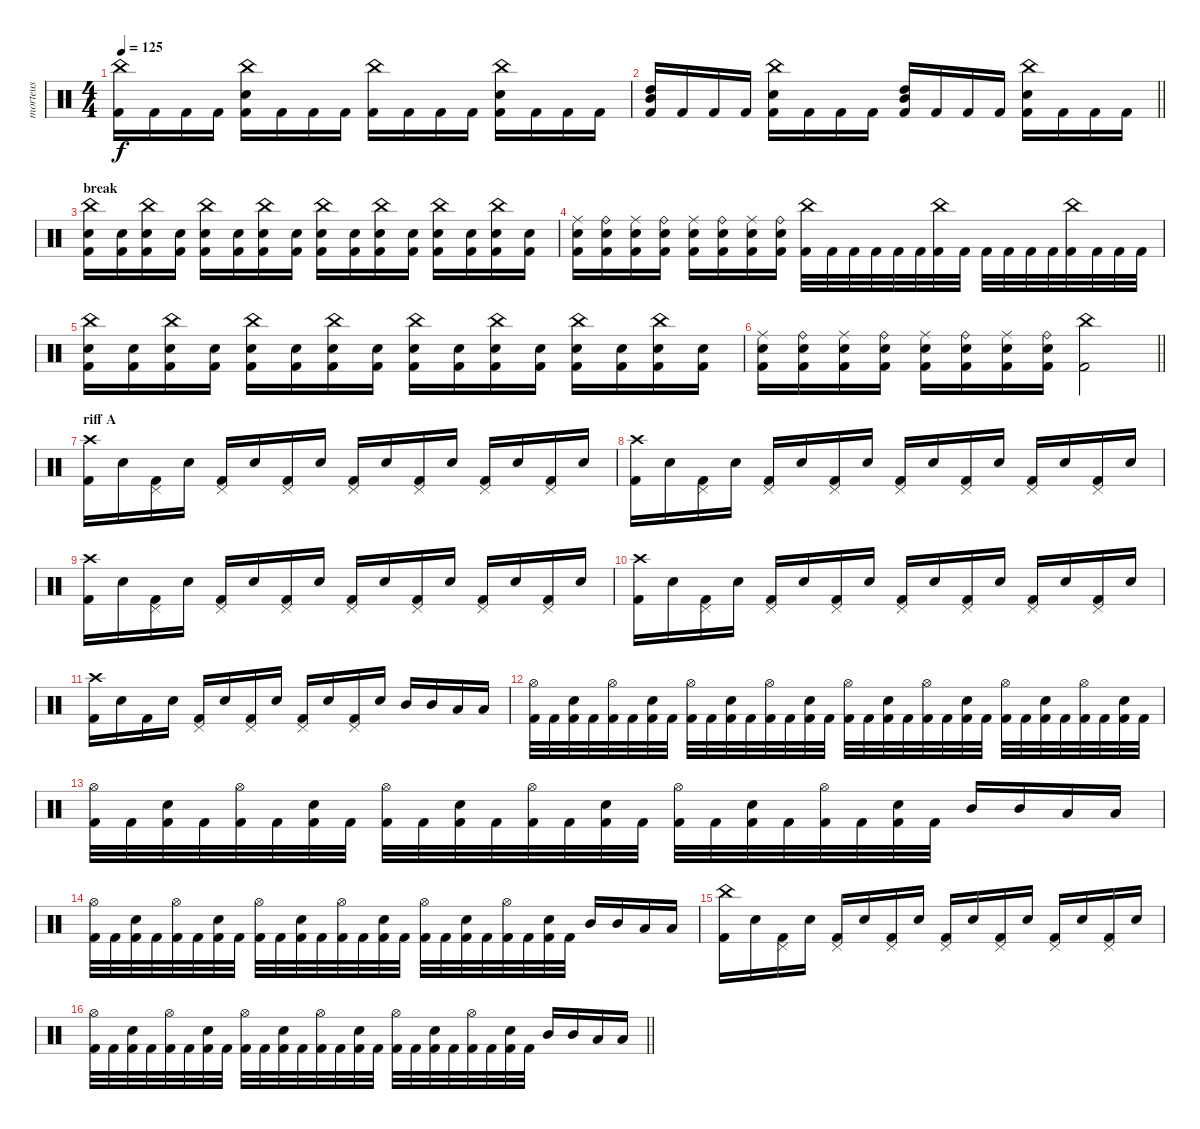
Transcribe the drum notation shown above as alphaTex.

\track ("morteus" "morteus") {instrument percussion}
\staff {score}
\articulation defaults
\ts (4 4)
\tempo 125
\clef neutral
\ks c
("China (hit)" "Kick (hit) 2").16{dy f} "Kick (hit) 2".16 "Kick (hit) 2".16 "Kick (hit) 2".16 ("China (hit)" "Electric Snare (hit)" "Kick (hit) 2").16 "Kick (hit) 2".16 "Kick (hit) 2".16 "Kick (hit) 2".16 ("China (hit)" "Kick (hit) 2").16 "Kick (hit) 2".16 "Kick (hit) 2".16 "Kick (hit) 2".16 ("China (hit)" "Electric Snare (hit)" "Kick (hit) 2").16 "Kick (hit) 2".16 "Kick (hit) 2".16 "Kick (hit) 2".16 |
\barLineRight lightlight
("High Tom (hit)" "Mid Tom (hit)" "Kick (hit) 2").16 "Kick (hit) 2".16 "Kick (hit) 2".16 "Kick (hit) 2".16 ("China (hit)" "Electric Snare (hit)" "Kick (hit) 2").16 "Kick (hit) 2".16 "Kick (hit) 2".16 "Kick (hit) 2".16 ("High Tom (hit)" "Mid Tom (hit)" "Kick (hit) 2").16 "Kick (hit) 2".16 "Kick (hit) 2".16 "Kick (hit) 2".16 ("China (hit)" "Electric Snare (hit)" "Kick (hit) 2").16 "Kick (hit) 2".16 "Kick (hit) 2".16 "Kick (hit) 2".16 |
\section ("" "break")
("Kick (hit) 2" "Electric Snare (hit)" "China (hit)").16 ("Kick (hit) 2" "Electric Snare (hit)").16 ("Kick (hit) 2" "Electric Snare (hit)" "China (hit)").16 ("Kick (hit) 2" "Electric Snare (hit)").16 ("Kick (hit) 2" "Electric Snare (hit)" "China (hit)").16 ("Kick (hit) 2" "Electric Snare (hit)").16 ("Kick (hit) 2" "Electric Snare (hit)" "China (hit)").16 ("Kick (hit) 2" "Electric Snare (hit)").16 ("Kick (hit) 2" "Electric Snare (hit)" "China (hit)").16 ("Kick (hit) 2" "Electric Snare (hit)").16 ("Kick (hit) 2" "Electric Snare (hit)" "China (hit)").16 ("Kick (hit) 2" "Electric Snare (hit)").16 ("Kick (hit) 2" "Electric Snare (hit)" "China (hit)").16 ("Kick (hit) 2" "Electric Snare (hit)").16 ("Kick (hit) 2" "Electric Snare (hit)" "China (hit)").16 ("Kick (hit) 2" "Electric Snare (hit)").16 |
("Kick (hit) 2" "Electric Snare (hit)" "Ride (middle)").16 ("Kick (hit) 2" "Electric Snare (hit)" "Ride (bell)").16 ("Kick (hit) 2" "Electric Snare (hit)" "Ride (middle)").16 ("Kick (hit) 2" "Electric Snare (hit)" "Ride (bell)").16 ("Kick (hit) 2" "Electric Snare (hit)" "Ride (middle)").16 ("Kick (hit) 2" "Electric Snare (hit)" "Ride (bell)").16 ("Kick (hit) 2" "Electric Snare (hit)" "Ride (middle)").16 ("Kick (hit) 2" "Electric Snare (hit)" "Ride (bell)").16 ("Kick (hit) 2" "China (hit)").32 "Kick (hit) 2".32 "Kick (hit) 2".32 "Kick (hit) 2".32 "Kick (hit) 2".32 "Kick (hit) 2".32 ("Kick (hit) 2" "China (hit)").32 "Kick (hit) 2".32 "Kick (hit) 2".32 "Kick (hit) 2".32 "Kick (hit) 2".32 "Kick (hit) 2".32 ("Kick (hit) 2" "China (hit)").32 "Kick (hit) 2".32 "Kick (hit) 2".32 "Kick (hit) 2".32 |
("Kick (hit) 2" "Electric Snare (hit)" "China (hit)").16 ("Kick (hit) 2" "Electric Snare (hit)").16 ("Kick (hit) 2" "Electric Snare (hit)" "China (hit)").16 ("Kick (hit) 2" "Electric Snare (hit)").16 ("Kick (hit) 2" "Electric Snare (hit)" "China (hit)").16 ("Kick (hit) 2" "Electric Snare (hit)").16 ("Kick (hit) 2" "Electric Snare (hit)" "China (hit)").16 ("Kick (hit) 2" "Electric Snare (hit)").16 ("Kick (hit) 2" "Electric Snare (hit)" "China (hit)").16 ("Kick (hit) 2" "Electric Snare (hit)").16 ("Kick (hit) 2" "Electric Snare (hit)" "China (hit)").16 ("Kick (hit) 2" "Electric Snare (hit)").16 ("Kick (hit) 2" "Electric Snare (hit)" "China (hit)").16 ("Kick (hit) 2" "Electric Snare (hit)").16 ("Kick (hit) 2" "Electric Snare (hit)" "China (hit)").16 ("Kick (hit) 2" "Electric Snare (hit)").16 |
\barLineRight lightlight
("Kick (hit) 2" "Electric Snare (hit)" "Ride (middle)").16 ("Kick (hit) 2" "Electric Snare (hit)" "Ride (bell)").16 ("Kick (hit) 2" "Electric Snare (hit)" "Ride (middle)").16 ("Kick (hit) 2" "Electric Snare (hit)" "Ride (bell)").16 ("Kick (hit) 2" "Electric Snare (hit)" "Ride (middle)").16 ("Kick (hit) 2" "Electric Snare (hit)" "Ride (bell)").16 ("Kick (hit) 2" "Electric Snare (hit)" "Ride (middle)").16 ("Kick (hit) 2" "Electric Snare (hit)" "Ride (bell)").16 ("China (hit)" "Kick (hit) 2").2 |
\section ("" "riff A")
("Kick (hit) 2" "Crash high (hit)").16 "Electric Snare (hit)".16 ("Kick (hit) 2" "Pedal Hi-Hat (hit)").16 "Electric Snare (hit)".16 ("Kick (hit) 2" "Pedal Hi-Hat (hit)").16 "Electric Snare (hit)".16 ("Kick (hit) 2" "Pedal Hi-Hat (hit)").16 "Electric Snare (hit)".16 ("Kick (hit) 2" "Pedal Hi-Hat (hit)").16 "Electric Snare (hit)".16 ("Kick (hit) 2" "Pedal Hi-Hat (hit)").16 "Electric Snare (hit)".16 ("Kick (hit) 2" "Pedal Hi-Hat (hit)").16 "Electric Snare (hit)".16 ("Kick (hit) 2" "Pedal Hi-Hat (hit)").16 "Electric Snare (hit)".16 |
("Kick (hit) 2" "Crash high (hit)").16 "Electric Snare (hit)".16 ("Kick (hit) 2" "Pedal Hi-Hat (hit)").16 "Electric Snare (hit)".16 ("Kick (hit) 2" "Pedal Hi-Hat (hit)").16 "Electric Snare (hit)".16 ("Kick (hit) 2" "Pedal Hi-Hat (hit)").16 "Electric Snare (hit)".16 ("Kick (hit) 2" "Pedal Hi-Hat (hit)").16 "Electric Snare (hit)".16 ("Kick (hit) 2" "Pedal Hi-Hat (hit)").16 "Electric Snare (hit)".16 ("Kick (hit) 2" "Pedal Hi-Hat (hit)").16 "Electric Snare (hit)".16 ("Kick (hit) 2" "Pedal Hi-Hat (hit)").16 "Electric Snare (hit)".16 |
("Kick (hit) 2" "Crash high (hit)").16 "Electric Snare (hit)".16 ("Kick (hit) 2" "Pedal Hi-Hat (hit)").16 "Electric Snare (hit)".16 ("Kick (hit) 2" "Pedal Hi-Hat (hit)").16 "Electric Snare (hit)".16 ("Kick (hit) 2" "Pedal Hi-Hat (hit)").16 "Electric Snare (hit)".16 ("Kick (hit) 2" "Pedal Hi-Hat (hit)").16 "Electric Snare (hit)".16 ("Kick (hit) 2" "Pedal Hi-Hat (hit)").16 "Electric Snare (hit)".16 ("Kick (hit) 2" "Pedal Hi-Hat (hit)").16 "Electric Snare (hit)".16 ("Kick (hit) 2" "Pedal Hi-Hat (hit)").16 "Electric Snare (hit)".16 |
("Kick (hit) 2" "Crash high (hit)").16 "Electric Snare (hit)".16 ("Kick (hit) 2" "Pedal Hi-Hat (hit)").16 "Electric Snare (hit)".16 ("Kick (hit) 2" "Pedal Hi-Hat (hit)").16 "Electric Snare (hit)".16 ("Kick (hit) 2" "Pedal Hi-Hat (hit)").16 "Electric Snare (hit)".16 ("Kick (hit) 2" "Pedal Hi-Hat (hit)").16 "Electric Snare (hit)".16 ("Kick (hit) 2" "Pedal Hi-Hat (hit)").16 "Electric Snare (hit)".16 ("Kick (hit) 2" "Pedal Hi-Hat (hit)").16 "Electric Snare (hit)".16 ("Kick (hit) 2" "Pedal Hi-Hat (hit)").16 "Electric Snare (hit)".16 |
("Kick (hit) 2" "Crash high (hit)").16 "Electric Snare (hit)".16 "Kick (hit) 2".16 "Electric Snare (hit)".16 ("Kick (hit) 2" "Pedal Hi-Hat (hit)").16 "Electric Snare (hit)".16 ("Kick (hit) 2" "Pedal Hi-Hat (hit)").16 "Electric Snare (hit)".16 ("Kick (hit) 2" "Pedal Hi-Hat (hit)").16 "Electric Snare (hit)".16 ("Kick (hit) 2" "Pedal Hi-Hat (hit)").16 "Electric Snare (hit)".16 "Mid Tom (hit)".16 "Mid Tom (hit)".16 "Low Tom (hit)".16 "Low Tom (hit)".16 |
("Kick (hit) 2" "Hi-Hat (open)").32 "Kick (hit) 2".32 ("Kick (hit) 2" "Electric Snare (hit)").32 "Kick (hit) 2".32 ("Kick (hit) 2" "Hi-Hat (open)").32 "Kick (hit) 2".32 ("Kick (hit) 2" "Electric Snare (hit)").32 "Kick (hit) 2".32 ("Kick (hit) 2" "Hi-Hat (open)").32 "Kick (hit) 2".32 ("Kick (hit) 2" "Electric Snare (hit)").32 "Kick (hit) 2".32 ("Kick (hit) 2" "Hi-Hat (open)").32 "Kick (hit) 2".32 ("Kick (hit) 2" "Electric Snare (hit)").32 "Kick (hit) 2".32 ("Kick (hit) 2" "Hi-Hat (open)").32 "Kick (hit) 2".32 ("Kick (hit) 2" "Electric Snare (hit)").32 "Kick (hit) 2".32 ("Kick (hit) 2" "Hi-Hat (open)").32 "Kick (hit) 2".32 ("Kick (hit) 2" "Electric Snare (hit)").32 "Kick (hit) 2".32 ("Kick (hit) 2" "Hi-Hat (open)").32 "Kick (hit) 2".32 ("Kick (hit) 2" "Electric Snare (hit)").32 "Kick (hit) 2".32 ("Kick (hit) 2" "Hi-Hat (open)").32 "Kick (hit) 2".32 ("Kick (hit) 2" "Electric Snare (hit)").32 "Kick (hit) 2".32 |
("Kick (hit) 2" "Hi-Hat (open)").32 "Kick (hit) 2".32 ("Kick (hit) 2" "Electric Snare (hit)").32 "Kick (hit) 2".32 ("Kick (hit) 2" "Hi-Hat (open)").32 "Kick (hit) 2".32 ("Kick (hit) 2" "Electric Snare (hit)").32 "Kick (hit) 2".32 ("Kick (hit) 2" "Hi-Hat (open)").32 "Kick (hit) 2".32 ("Kick (hit) 2" "Electric Snare (hit)").32 "Kick (hit) 2".32 ("Kick (hit) 2" "Hi-Hat (open)").32 "Kick (hit) 2".32 ("Kick (hit) 2" "Electric Snare (hit)").32 "Kick (hit) 2".32 ("Kick (hit) 2" "Hi-Hat (open)").32 "Kick (hit) 2".32 ("Kick (hit) 2" "Electric Snare (hit)").32 "Kick (hit) 2".32 ("Kick (hit) 2" "Hi-Hat (open)").32 "Kick (hit) 2".32 ("Kick (hit) 2" "Electric Snare (hit)").32 "Kick (hit) 2".32 "Mid Tom (hit)".16 "Mid Tom (hit)".16 "Low Tom (hit)".16 "Low Tom (hit)".16 |
("Kick (hit) 2" "Hi-Hat (open)").32 "Kick (hit) 2".32 ("Kick (hit) 2" "Electric Snare (hit)").32 "Kick (hit) 2".32 ("Kick (hit) 2" "Hi-Hat (open)").32 "Kick (hit) 2".32 ("Kick (hit) 2" "Electric Snare (hit)").32 "Kick (hit) 2".32 ("Kick (hit) 2" "Hi-Hat (open)").32 "Kick (hit) 2".32 ("Kick (hit) 2" "Electric Snare (hit)").32 "Kick (hit) 2".32 ("Kick (hit) 2" "Hi-Hat (open)").32 "Kick (hit) 2".32 ("Kick (hit) 2" "Electric Snare (hit)").32 "Kick (hit) 2".32 ("Kick (hit) 2" "Hi-Hat (open)").32 "Kick (hit) 2".32 ("Kick (hit) 2" "Electric Snare (hit)").32 "Kick (hit) 2".32 ("Kick (hit) 2" "Hi-Hat (open)").32 "Kick (hit) 2".32 ("Kick (hit) 2" "Electric Snare (hit)").32 "Kick (hit) 2".32 "Mid Tom (hit)".16 "Mid Tom (hit)".16 "Low Tom (hit)".16 "Low Tom (hit)".16 |
("Kick (hit) 2" "China (hit)").16 "Electric Snare (hit)".16 ("Kick (hit) 2" "Pedal Hi-Hat (hit)").16 "Electric Snare (hit)".16 ("Kick (hit) 2" "Pedal Hi-Hat (hit)").16 "Electric Snare (hit)".16 ("Kick (hit) 2" "Pedal Hi-Hat (hit)").16 "Electric Snare (hit)".16 ("Kick (hit) 2" "Pedal Hi-Hat (hit)").16 "Electric Snare (hit)".16 ("Kick (hit) 2" "Pedal Hi-Hat (hit)").16 "Electric Snare (hit)".16 ("Kick (hit) 2" "Pedal Hi-Hat (hit)").16 "Electric Snare (hit)".16 ("Kick (hit) 2" "Pedal Hi-Hat (hit)").16 "Electric Snare (hit)".16 |
\barLineRight lightlight
("Kick (hit) 2" "Hi-Hat (open)").32 "Kick (hit) 2".32 ("Kick (hit) 2" "Electric Snare (hit)").32 "Kick (hit) 2".32 ("Kick (hit) 2" "Hi-Hat (open)").32 "Kick (hit) 2".32 ("Kick (hit) 2" "Electric Snare (hit)").32 "Kick (hit) 2".32 ("Kick (hit) 2" "Hi-Hat (open)").32 "Kick (hit) 2".32 ("Kick (hit) 2" "Electric Snare (hit)").32 "Kick (hit) 2".32 ("Kick (hit) 2" "Hi-Hat (open)").32 "Kick (hit) 2".32 ("Kick (hit) 2" "Electric Snare (hit)").32 "Kick (hit) 2".32 ("Kick (hit) 2" "Hi-Hat (open)").32 "Kick (hit) 2".32 ("Kick (hit) 2" "Electric Snare (hit)").32 "Kick (hit) 2".32 ("Kick (hit) 2" "Hi-Hat (open)").32 "Kick (hit) 2".32 ("Kick (hit) 2" "Electric Snare (hit)").32 "Kick (hit) 2".32 "Mid Tom (hit)".16 "Mid Tom (hit)".16 "Low Tom (hit)".16 "Low Tom (hit)".16
